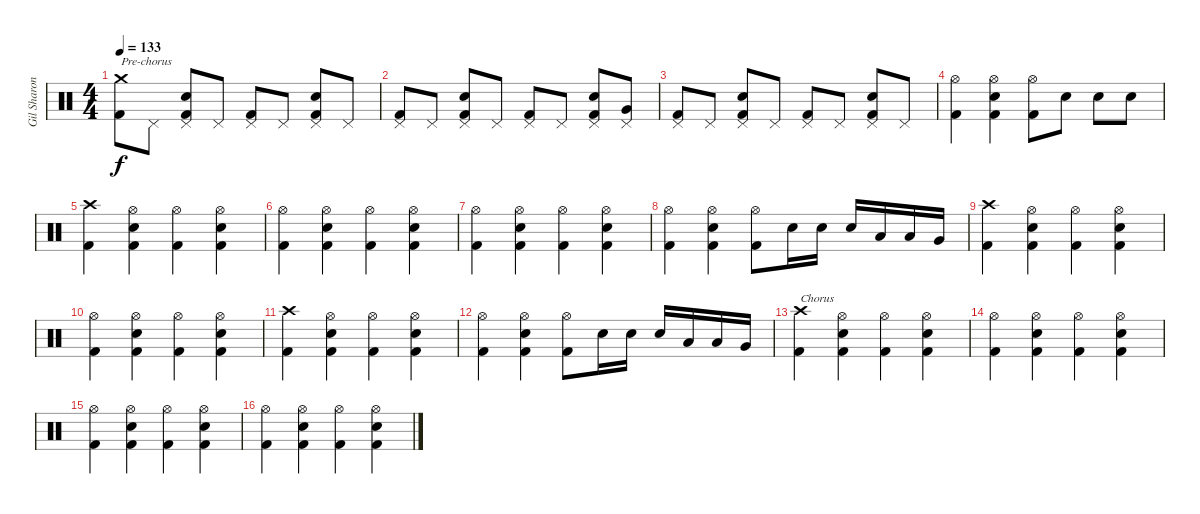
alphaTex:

\track ("Gil Sharone" "Gil Sharon") {instrument percussion}
\staff {score}
\articulation defaults
\ts (4 4)
\tempo 133
\clef neutral
\ks c
("Crash medium (hit)" "Kick (hit) 2").8{txt "Pre-chorus" dy f} "Pedal Hi-Hat (hit)".8 ("Pedal Hi-Hat (hit)" "Electric Snare (hit)" "Kick (hit) 2").8 "Pedal Hi-Hat (hit)".8 ("Pedal Hi-Hat (hit)" "Kick (hit) 2").8 "Pedal Hi-Hat (hit)".8 ("Pedal Hi-Hat (hit)" "Electric Snare (hit)" "Kick (hit) 2").8 "Pedal Hi-Hat (hit)".8 |
("Pedal Hi-Hat (hit)" "Kick (hit) 2").8 "Pedal Hi-Hat (hit)".8 ("Pedal Hi-Hat (hit)" "Electric Snare (hit)" "Kick (hit) 2").8 "Pedal Hi-Hat (hit)".8 ("Pedal Hi-Hat (hit)" "Kick (hit) 2").8 "Pedal Hi-Hat (hit)".8 ("Pedal Hi-Hat (hit)" "Electric Snare (hit)" "Kick (hit) 2").8 ("Pedal Hi-Hat (hit)" "Very Low Tom (hit)").8 |
("Pedal Hi-Hat (hit)" "Kick (hit) 2").8 "Pedal Hi-Hat (hit)".8 ("Pedal Hi-Hat (hit)" "Electric Snare (hit)" "Kick (hit) 2").8 "Pedal Hi-Hat (hit)".8 ("Pedal Hi-Hat (hit)" "Kick (hit) 2").8 "Pedal Hi-Hat (hit)".8 ("Pedal Hi-Hat (hit)" "Electric Snare (hit)" "Kick (hit) 2").8 "Pedal Hi-Hat (hit)".8 |
("Hi-Hat (open)" "Kick (hit) 2").4 ("Hi-Hat (open)" "Electric Snare (hit)" "Kick (hit) 2").4 ("Hi-Hat (open)" "Kick (hit) 2").8 "Electric Snare (hit)".8 "Electric Snare (hit)".8 "Electric Snare (hit)".8 |
("Crash high (hit)" "Kick (hit) 2").4 ("Hi-Hat (open)" "Electric Snare (hit)" "Kick (hit) 2").4 ("Hi-Hat (open)" "Kick (hit) 2").4 ("Hi-Hat (open)" "Electric Snare (hit)" "Kick (hit) 2").4 |
("Hi-Hat (open)" "Kick (hit) 2").4 ("Hi-Hat (open)" "Electric Snare (hit)" "Kick (hit) 2").4 ("Hi-Hat (open)" "Kick (hit) 2").4 ("Hi-Hat (open)" "Electric Snare (hit)" "Kick (hit) 2").4 |
("Hi-Hat (open)" "Kick (hit) 2").4 ("Hi-Hat (open)" "Electric Snare (hit)" "Kick (hit) 2").4 ("Hi-Hat (open)" "Kick (hit) 2").4 ("Hi-Hat (open)" "Electric Snare (hit)" "Kick (hit) 2").4 |
("Hi-Hat (open)" "Kick (hit) 2").4 ("Hi-Hat (open)" "Electric Snare (hit)" "Kick (hit) 2").4 ("Hi-Hat (open)" "Kick (hit) 2").8 "Electric Snare (hit)".16 "Electric Snare (hit)".16 "Electric Snare (hit)".16 "Low Tom (hit)".16 "Low Tom (hit)".16 "Very Low Tom (hit)".16 |
("Crash high (hit)" "Kick (hit) 2").4 ("Hi-Hat (open)" "Electric Snare (hit)" "Kick (hit) 2").4 ("Hi-Hat (open)" "Kick (hit) 2").4 ("Hi-Hat (open)" "Electric Snare (hit)" "Kick (hit) 2").4 |
("Hi-Hat (open)" "Kick (hit) 2").4 ("Hi-Hat (open)" "Electric Snare (hit)" "Kick (hit) 2").4 ("Hi-Hat (open)" "Kick (hit) 2").4 ("Hi-Hat (open)" "Electric Snare (hit)" "Kick (hit) 2").4 |
("Crash high (hit)" "Kick (hit) 2").4 ("Hi-Hat (open)" "Electric Snare (hit)" "Kick (hit) 2").4 ("Hi-Hat (open)" "Kick (hit) 2").4 ("Hi-Hat (open)" "Electric Snare (hit)" "Kick (hit) 2").4 |
("Hi-Hat (open)" "Kick (hit) 2").4 ("Hi-Hat (open)" "Electric Snare (hit)" "Kick (hit) 2").4 ("Hi-Hat (open)" "Kick (hit) 2").8 "Electric Snare (hit)".16 "Electric Snare (hit)".16 "Electric Snare (hit)".16 "Low Tom (hit)".16 "Low Tom (hit)".16 "Very Low Tom (hit)".16 |
("Crash high (hit)" "Kick (hit) 2").4{txt "Chorus"} ("Hi-Hat (open)" "Electric Snare (hit)" "Kick (hit) 2").4 ("Hi-Hat (open)" "Kick (hit) 2").4 ("Hi-Hat (open)" "Electric Snare (hit)" "Kick (hit) 2").4 |
("Hi-Hat (open)" "Kick (hit) 2").4 ("Hi-Hat (open)" "Electric Snare (hit)" "Kick (hit) 2").4 ("Hi-Hat (open)" "Kick (hit) 2").4 ("Hi-Hat (open)" "Electric Snare (hit)" "Kick (hit) 2").4 |
("Hi-Hat (open)" "Kick (hit) 2").4 ("Hi-Hat (open)" "Electric Snare (hit)" "Kick (hit) 2").4 ("Hi-Hat (open)" "Kick (hit) 2").4 ("Hi-Hat (open)" "Electric Snare (hit)" "Kick (hit) 2").4 |
("Hi-Hat (open)" "Kick (hit) 2").4 ("Hi-Hat (open)" "Electric Snare (hit)" "Kick (hit) 2").4 ("Hi-Hat (open)" "Kick (hit) 2").4 ("Hi-Hat (open)" "Electric Snare (hit)" "Kick (hit) 2").4
